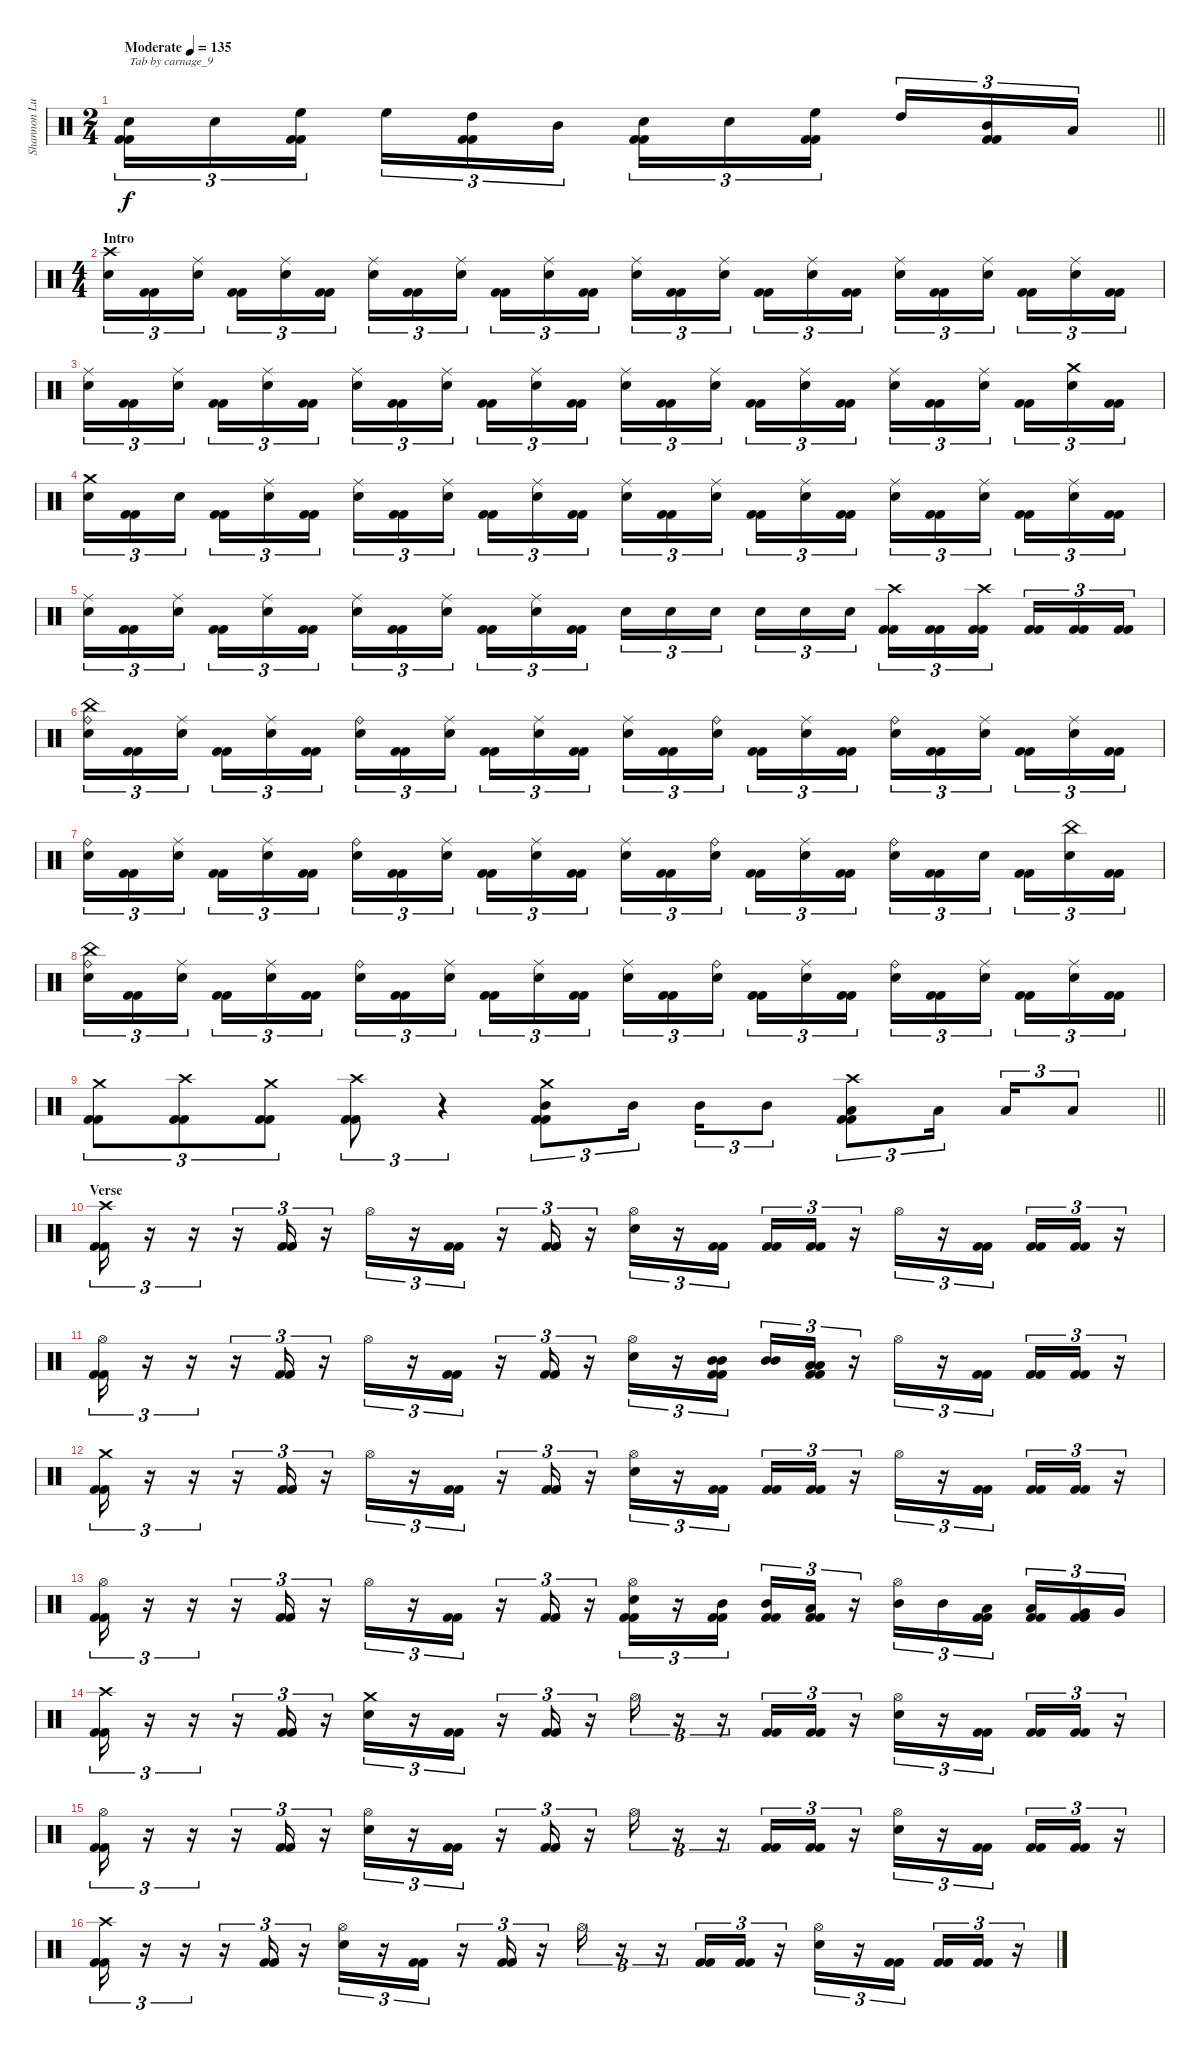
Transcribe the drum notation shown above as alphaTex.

\track ("Shannon Lucas" "Shannon Lu") {instrument percussion}
\staff {score}
\articulation defaults
\ts (2 4)
\tempo (135 "Moderate")
\clef neutral
\barLineRight lightlight
\ks c
("Electric Snare (hit)" "Kick (hit) 2" "Kick (hit) 2").16{tu (3 2) txt "Tab by carnage_9" dy f} "Electric Snare (hit)".16{tu (3 2)} ("High Floor Tom (hit)" "Kick (hit) 2" "Kick (hit) 2").16{tu (3 2) beam splitsecondary} "High Floor Tom (hit)".16{tu (3 2)} ("High Tom (hit)" "Kick (hit) 2" "Kick (hit) 2").16{tu (3 2)} "Mid Tom (hit)".16{tu (3 2)} ("Electric Snare (hit)" "Kick (hit) 2" "Kick (hit) 2").16{tu (3 2)} "Electric Snare (hit)".16{tu (3 2)} ("High Floor Tom (hit)" "Kick (hit) 2" "Kick (hit) 2").16{tu (3 2) beam splitsecondary} "High Tom (hit)".16{tu (3 2)} ("Mid Tom (hit)" "Kick (hit) 2" "Kick (hit) 2").16{tu (3 2)} "Low Tom (hit)".16{tu (3 2)} |
\ts (4 4)
\section ("" "Intro")
("Crash high (hit)" "Electric Snare (hit)").16{tu (3 2)} ("Kick (hit) 2" "Kick (hit) 2").16{tu (3 2)} ("Ride (middle)" "Electric Snare (hit)").16{tu (3 2) beam splitsecondary} ("Kick (hit) 2" "Kick (hit) 2").16{tu (3 2)} ("Ride (middle)" "Electric Snare (hit)").16{tu (3 2)} ("Kick (hit) 2" "Kick (hit) 2").16{tu (3 2)} ("Ride (middle)" "Electric Snare (hit)").16{tu (3 2)} ("Kick (hit) 2" "Kick (hit) 2").16{tu (3 2)} ("Ride (middle)" "Electric Snare (hit)").16{tu (3 2) beam splitsecondary} ("Kick (hit) 2" "Kick (hit) 2").16{tu (3 2)} ("Ride (middle)" "Electric Snare (hit)").16{tu (3 2)} ("Kick (hit) 2" "Kick (hit) 2").16{tu (3 2)} ("Ride (middle)" "Electric Snare (hit)").16{tu (3 2)} ("Kick (hit) 2" "Kick (hit) 2").16{tu (3 2)} ("Ride (middle)" "Electric Snare (hit)").16{tu (3 2) beam splitsecondary} ("Kick (hit) 2" "Kick (hit) 2").16{tu (3 2)} ("Ride (middle)" "Electric Snare (hit)").16{tu (3 2)} ("Kick (hit) 2" "Kick (hit) 2").16{tu (3 2)} ("Ride (middle)" "Electric Snare (hit)").16{tu (3 2)} ("Kick (hit) 2" "Kick (hit) 2").16{tu (3 2)} ("Ride (middle)" "Electric Snare (hit)").16{tu (3 2) beam splitsecondary} ("Kick (hit) 2" "Kick (hit) 2").16{tu (3 2)} ("Ride (middle)" "Electric Snare (hit)").16{tu (3 2)} ("Kick (hit) 2" "Kick (hit) 2").16{tu (3 2)} |
("Ride (middle)" "Electric Snare (hit)").16{tu (3 2)} ("Kick (hit) 2" "Kick (hit) 2").16{tu (3 2)} ("Ride (middle)" "Electric Snare (hit)").16{tu (3 2) beam splitsecondary} ("Kick (hit) 2" "Kick (hit) 2").16{tu (3 2)} ("Ride (middle)" "Electric Snare (hit)").16{tu (3 2)} ("Kick (hit) 2" "Kick (hit) 2").16{tu (3 2)} ("Ride (middle)" "Electric Snare (hit)").16{tu (3 2)} ("Kick (hit) 2" "Kick (hit) 2").16{tu (3 2)} ("Ride (middle)" "Electric Snare (hit)").16{tu (3 2) beam splitsecondary} ("Kick (hit) 2" "Kick (hit) 2").16{tu (3 2)} ("Ride (middle)" "Electric Snare (hit)").16{tu (3 2)} ("Kick (hit) 2" "Kick (hit) 2").16{tu (3 2)} ("Ride (middle)" "Electric Snare (hit)").16{tu (3 2)} ("Kick (hit) 2" "Kick (hit) 2").16{tu (3 2)} ("Ride (middle)" "Electric Snare (hit)").16{tu (3 2) beam splitsecondary} ("Kick (hit) 2" "Kick (hit) 2").16{tu (3 2)} ("Ride (middle)" "Electric Snare (hit)").16{tu (3 2)} ("Kick (hit) 2" "Kick (hit) 2").16{tu (3 2)} ("Ride (middle)" "Electric Snare (hit)").16{tu (3 2)} ("Kick (hit) 2" "Kick (hit) 2").16{tu (3 2)} ("Ride (middle)" "Electric Snare (hit)").16{tu (3 2) beam splitsecondary} ("Kick (hit) 2" "Kick (hit) 2").16{tu (3 2)} ("Crash medium (hit)" "Electric Snare (hit)").16{tu (3 2)} ("Kick (hit) 2" "Kick (hit) 2").16{tu (3 2)} |
("Crash medium (hit)" "Electric Snare (hit)").16{tu (3 2)} ("Kick (hit) 2" "Kick (hit) 2").16{tu (3 2)} "Electric Snare (hit)".16{tu (3 2) beam splitsecondary} ("Kick (hit) 2" "Kick (hit) 2").16{tu (3 2)} ("Ride (middle)" "Electric Snare (hit)").16{tu (3 2)} ("Kick (hit) 2" "Kick (hit) 2").16{tu (3 2)} ("Ride (middle)" "Electric Snare (hit)").16{tu (3 2)} ("Kick (hit) 2" "Kick (hit) 2").16{tu (3 2)} ("Ride (middle)" "Electric Snare (hit)").16{tu (3 2) beam splitsecondary} ("Kick (hit) 2" "Kick (hit) 2").16{tu (3 2)} ("Ride (middle)" "Electric Snare (hit)").16{tu (3 2)} ("Kick (hit) 2" "Kick (hit) 2").16{tu (3 2)} ("Ride (middle)" "Electric Snare (hit)").16{tu (3 2)} ("Kick (hit) 2" "Kick (hit) 2").16{tu (3 2)} ("Ride (middle)" "Electric Snare (hit)").16{tu (3 2) beam splitsecondary} ("Kick (hit) 2" "Kick (hit) 2").16{tu (3 2)} ("Ride (middle)" "Electric Snare (hit)").16{tu (3 2)} ("Kick (hit) 2" "Kick (hit) 2").16{tu (3 2)} ("Ride (middle)" "Electric Snare (hit)").16{tu (3 2)} ("Kick (hit) 2" "Kick (hit) 2").16{tu (3 2)} ("Ride (middle)" "Electric Snare (hit)").16{tu (3 2) beam splitsecondary} ("Kick (hit) 2" "Kick (hit) 2").16{tu (3 2)} ("Ride (middle)" "Electric Snare (hit)").16{tu (3 2)} ("Kick (hit) 2" "Kick (hit) 2").16{tu (3 2)} |
("Ride (middle)" "Electric Snare (hit)").16{tu (3 2)} ("Kick (hit) 2" "Kick (hit) 2").16{tu (3 2)} ("Ride (middle)" "Electric Snare (hit)").16{tu (3 2) beam splitsecondary} ("Kick (hit) 2" "Kick (hit) 2").16{tu (3 2)} ("Ride (middle)" "Electric Snare (hit)").16{tu (3 2)} ("Kick (hit) 2" "Kick (hit) 2").16{tu (3 2)} ("Ride (middle)" "Electric Snare (hit)").16{tu (3 2)} ("Kick (hit) 2" "Kick (hit) 2").16{tu (3 2)} ("Ride (middle)" "Electric Snare (hit)").16{tu (3 2) beam splitsecondary} ("Kick (hit) 2" "Kick (hit) 2").16{tu (3 2)} ("Ride (middle)" "Electric Snare (hit)").16{tu (3 2)} ("Kick (hit) 2" "Kick (hit) 2").16{tu (3 2)} "Electric Snare (hit)".16{tu (3 2)} "Electric Snare (hit)".16{tu (3 2)} "Electric Snare (hit)".16{tu (3 2) beam splitsecondary} "Electric Snare (hit)".16{tu (3 2)} "Electric Snare (hit)".16{tu (3 2)} "Electric Snare (hit)".16{tu (3 2)} ("Crash high (hit)" "Kick (hit) 2" "Kick (hit) 2").16{tu (3 2)} ("Kick (hit) 2" "Kick (hit) 2").16{tu (3 2)} ("Crash high (hit)" "Kick (hit) 2" "Kick (hit) 2").16{tu (3 2) beam splitsecondary} ("Kick (hit) 2" "Kick (hit) 2").16{tu (3 2)} ("Kick (hit) 2" "Kick (hit) 2").16{tu (3 2)} ("Kick (hit) 2" "Kick (hit) 2").16{tu (3 2)} |
("China (hit)" "Ride (bell)" "Electric Snare (hit)").16{tu (3 2)} ("Kick (hit) 2" "Kick (hit) 2").16{tu (3 2)} ("Ride (middle)" "Electric Snare (hit)").16{tu (3 2) beam splitsecondary} ("Kick (hit) 2" "Kick (hit) 2").16{tu (3 2)} ("Ride (middle)" "Electric Snare (hit)").16{tu (3 2)} ("Kick (hit) 2" "Kick (hit) 2").16{tu (3 2)} ("Ride (bell)" "Electric Snare (hit)").16{tu (3 2)} ("Kick (hit) 2" "Kick (hit) 2").16{tu (3 2)} ("Ride (middle)" "Electric Snare (hit)").16{tu (3 2) beam splitsecondary} ("Kick (hit) 2" "Kick (hit) 2").16{tu (3 2)} ("Ride (middle)" "Electric Snare (hit)").16{tu (3 2)} ("Kick (hit) 2" "Kick (hit) 2").16{tu (3 2)} ("Ride (middle)" "Electric Snare (hit)").16{tu (3 2)} ("Kick (hit) 2" "Kick (hit) 2").16{tu (3 2)} ("Ride (bell)" "Electric Snare (hit)").16{tu (3 2) beam splitsecondary} ("Kick (hit) 2" "Kick (hit) 2").16{tu (3 2)} ("Ride (middle)" "Electric Snare (hit)").16{tu (3 2)} ("Kick (hit) 2" "Kick (hit) 2").16{tu (3 2)} ("Ride (bell)" "Electric Snare (hit)").16{tu (3 2)} ("Kick (hit) 2" "Kick (hit) 2").16{tu (3 2)} ("Ride (middle)" "Electric Snare (hit)").16{tu (3 2) beam splitsecondary} ("Kick (hit) 2" "Kick (hit) 2").16{tu (3 2)} ("Ride (middle)" "Electric Snare (hit)").16{tu (3 2)} ("Kick (hit) 2" "Kick (hit) 2").16{tu (3 2)} |
("Ride (bell)" "Electric Snare (hit)").16{tu (3 2)} ("Kick (hit) 2" "Kick (hit) 2").16{tu (3 2)} ("Ride (middle)" "Electric Snare (hit)").16{tu (3 2) beam splitsecondary} ("Kick (hit) 2" "Kick (hit) 2").16{tu (3 2)} ("Ride (middle)" "Electric Snare (hit)").16{tu (3 2)} ("Kick (hit) 2" "Kick (hit) 2").16{tu (3 2)} ("Ride (bell)" "Electric Snare (hit)").16{tu (3 2)} ("Kick (hit) 2" "Kick (hit) 2").16{tu (3 2)} ("Ride (middle)" "Electric Snare (hit)").16{tu (3 2) beam splitsecondary} ("Kick (hit) 2" "Kick (hit) 2").16{tu (3 2)} ("Ride (middle)" "Electric Snare (hit)").16{tu (3 2)} ("Kick (hit) 2" "Kick (hit) 2").16{tu (3 2)} ("Ride (middle)" "Electric Snare (hit)").16{tu (3 2)} ("Kick (hit) 2" "Kick (hit) 2").16{tu (3 2)} ("Ride (bell)" "Electric Snare (hit)").16{tu (3 2) beam splitsecondary} ("Kick (hit) 2" "Kick (hit) 2").16{tu (3 2)} ("Ride (middle)" "Electric Snare (hit)").16{tu (3 2)} ("Kick (hit) 2" "Kick (hit) 2").16{tu (3 2)} ("Ride (bell)" "Electric Snare (hit)").16{tu (3 2)} ("Kick (hit) 2" "Kick (hit) 2").16{tu (3 2)} "Electric Snare (hit)".16{tu (3 2) beam splitsecondary} ("Kick (hit) 2" "Kick (hit) 2").16{tu (3 2)} ("China (hit)" "Electric Snare (hit)").16{tu (3 2)} ("Kick (hit) 2" "Kick (hit) 2").16{tu (3 2)} |
("China (hit)" "Ride (bell)" "Electric Snare (hit)").16{tu (3 2)} ("Kick (hit) 2" "Kick (hit) 2").16{tu (3 2)} ("Ride (middle)" "Electric Snare (hit)").16{tu (3 2) beam splitsecondary} ("Kick (hit) 2" "Kick (hit) 2").16{tu (3 2)} ("Ride (middle)" "Electric Snare (hit)").16{tu (3 2)} ("Kick (hit) 2" "Kick (hit) 2").16{tu (3 2)} ("Ride (bell)" "Electric Snare (hit)").16{tu (3 2)} ("Kick (hit) 2" "Kick (hit) 2").16{tu (3 2)} ("Ride (middle)" "Electric Snare (hit)").16{tu (3 2) beam splitsecondary} ("Kick (hit) 2" "Kick (hit) 2").16{tu (3 2)} ("Ride (middle)" "Electric Snare (hit)").16{tu (3 2)} ("Kick (hit) 2" "Kick (hit) 2").16{tu (3 2)} ("Ride (middle)" "Electric Snare (hit)").16{tu (3 2)} ("Kick (hit) 2" "Kick (hit) 2").16{tu (3 2)} ("Ride (bell)" "Electric Snare (hit)").16{tu (3 2) beam splitsecondary} ("Kick (hit) 2" "Kick (hit) 2").16{tu (3 2)} ("Ride (middle)" "Electric Snare (hit)").16{tu (3 2)} ("Kick (hit) 2" "Kick (hit) 2").16{tu (3 2)} ("Ride (bell)" "Electric Snare (hit)").16{tu (3 2)} ("Kick (hit) 2" "Kick (hit) 2").16{tu (3 2)} ("Ride (middle)" "Electric Snare (hit)").16{tu (3 2) beam splitsecondary} ("Kick (hit) 2" "Kick (hit) 2").16{tu (3 2)} ("Ride (middle)" "Electric Snare (hit)").16{tu (3 2)} ("Kick (hit) 2" "Kick (hit) 2").16{tu (3 2)} |
\barLineRight lightlight
("Crash medium (hit)" "Kick (hit) 2" "Kick (hit) 2").8{tu (3 2)} ("Crash high (hit)" "Kick (hit) 2" "Kick (hit) 2").8{tu (3 2)} ("Crash medium (hit)" "Kick (hit) 2" "Kick (hit) 2").8{tu (3 2)} ("Crash high (hit)" "Kick (hit) 2" "Kick (hit) 2").8{tu (3 2)} r.4{tu (3 2)} ("Crash medium (hit)" "Mid Tom (hit)" "Kick (hit) 2" "Kick (hit) 2").8{tu (3 2)} "Mid Tom (hit)".16{tu (3 2) beam splitsecondary} "Mid Tom (hit)".16{tu (3 2)} "Mid Tom (hit)".8{tu (3 2)} ("Crash high (hit)" "Low Tom (hit)" "Kick (hit) 2" "Kick (hit) 2").8{tu (3 2)} "Low Tom (hit)".16{tu (3 2) beam splitsecondary} "Low Tom (hit)".16{tu (3 2)} "Low Tom (hit)".8{tu (3 2)} |
\section ("" "Verse")
("Crash high (hit)" "Kick (hit) 2" "Kick (hit) 2").16{tu (3 2)} r.16{tu (3 2)} r.16{tu (3 2)} r.16{tu (3 2)} ("Kick (hit) 2" "Kick (hit) 2").16{tu (3 2)} r.16{tu (3 2)} "Hi-Hat (open)".16{tu (3 2)} r.16{tu (3 2)} ("Kick (hit) 2" "Kick (hit) 2").16{tu (3 2)} r.16{tu (3 2)} ("Kick (hit) 2" "Kick (hit) 2").16{tu (3 2)} r.16{tu (3 2)} ("Hi-Hat (open)" "Electric Snare (hit)").16{tu (3 2)} r.16{tu (3 2)} ("Kick (hit) 2" "Kick (hit) 2").16{tu (3 2) beam splitsecondary} ("Kick (hit) 2" "Kick (hit) 2").16{tu (3 2)} ("Kick (hit) 2" "Kick (hit) 2").16{tu (3 2)} r.16{tu (3 2)} "Hi-Hat (open)".16{tu (3 2)} r.16{tu (3 2)} ("Kick (hit) 2" "Kick (hit) 2").16{tu (3 2) beam splitsecondary} ("Kick (hit) 2" "Kick (hit) 2").16{tu (3 2)} ("Kick (hit) 2" "Kick (hit) 2").16{tu (3 2)} r.16{tu (3 2)} |
("Hi-Hat (open)" "Kick (hit) 2" "Kick (hit) 2").16{tu (3 2)} r.16{tu (3 2)} r.16{tu (3 2)} r.16{tu (3 2)} ("Kick (hit) 2" "Kick (hit) 2").16{tu (3 2)} r.16{tu (3 2)} "Hi-Hat (open)".16{tu (3 2)} r.16{tu (3 2)} ("Kick (hit) 2" "Kick (hit) 2").16{tu (3 2)} r.16{tu (3 2)} ("Kick (hit) 2" "Kick (hit) 2").16{tu (3 2)} r.16{tu (3 2)} ("Hi-Hat (open)" "Electric Snare (hit)").16{tu (3 2)} r.16{tu (3 2)} ("Mid Tom (hit)" "Mid Tom (hit)" "Kick (hit) 2" "Kick (hit) 2").16{tu (3 2) beam splitsecondary} ("Mid Tom (hit)" "Mid Tom (hit)").16{tu (3 2)} ("Low Tom (hit)" "Low Tom (hit)" "Kick (hit) 2" "Kick (hit) 2").16{tu (3 2)} r.16{tu (3 2)} "Hi-Hat (open)".16{tu (3 2)} r.16{tu (3 2)} ("Kick (hit) 2" "Kick (hit) 2").16{tu (3 2) beam splitsecondary} ("Kick (hit) 2" "Kick (hit) 2").16{tu (3 2)} ("Kick (hit) 2" "Kick (hit) 2").16{tu (3 2)} r.16{tu (3 2)} |
("Crash medium (hit)" "Kick (hit) 2" "Kick (hit) 2").16{tu (3 2)} r.16{tu (3 2)} r.16{tu (3 2)} r.16{tu (3 2)} ("Kick (hit) 2" "Kick (hit) 2").16{tu (3 2)} r.16{tu (3 2)} "Hi-Hat (open)".16{tu (3 2)} r.16{tu (3 2)} ("Kick (hit) 2" "Kick (hit) 2").16{tu (3 2)} r.16{tu (3 2)} ("Kick (hit) 2" "Kick (hit) 2").16{tu (3 2)} r.16{tu (3 2)} ("Hi-Hat (open)" "Electric Snare (hit)").16{tu (3 2)} r.16{tu (3 2)} ("Kick (hit) 2" "Kick (hit) 2").16{tu (3 2) beam splitsecondary} ("Kick (hit) 2" "Kick (hit) 2").16{tu (3 2)} ("Kick (hit) 2" "Kick (hit) 2").16{tu (3 2)} r.16{tu (3 2)} "Hi-Hat (open)".16{tu (3 2)} r.16{tu (3 2)} ("Kick (hit) 2" "Kick (hit) 2").16{tu (3 2) beam splitsecondary} ("Kick (hit) 2" "Kick (hit) 2").16{tu (3 2)} ("Kick (hit) 2" "Kick (hit) 2").16{tu (3 2)} r.16{tu (3 2)} |
("Hi-Hat (open)" "Kick (hit) 2" "Kick (hit) 2").16{tu (3 2)} r.16{tu (3 2)} r.16{tu (3 2)} r.16{tu (3 2)} ("Kick (hit) 2" "Kick (hit) 2").16{tu (3 2)} r.16{tu (3 2)} "Hi-Hat (open)".16{tu (3 2)} r.16{tu (3 2)} ("Kick (hit) 2" "Kick (hit) 2").16{tu (3 2)} r.16{tu (3 2)} ("Kick (hit) 2" "Kick (hit) 2").16{tu (3 2)} r.16{tu (3 2)} ("Hi-Hat (open)" "Electric Snare (hit)" "Kick (hit) 2" "Kick (hit) 2").16{tu (3 2)} r.16{tu (3 2)} ("Mid Tom (hit)" "Kick (hit) 2" "Kick (hit) 2").16{tu (3 2) beam splitsecondary} ("Mid Tom (hit)" "Kick (hit) 2" "Kick (hit) 2").16{tu (3 2)} ("Low Tom (hit)" "Kick (hit) 2" "Kick (hit) 2").16{tu (3 2)} r.16{tu (3 2)} ("Hi-Hat (open)" "Mid Tom (hit)").16{tu (3 2)} "Mid Tom (hit)".16{tu (3 2)} ("Low Tom (hit)" "Kick (hit) 2" "Kick (hit) 2").16{tu (3 2) beam splitsecondary} ("Low Tom (hit)" "Kick (hit) 2" "Kick (hit) 2").16{tu (3 2)} ("Very Low Tom (hit)" "Kick (hit) 2" "Kick (hit) 2").16{tu (3 2)} "Very Low Tom (hit)".16{tu (3 2)} |
("Crash high (hit)" "Kick (hit) 2" "Kick (hit) 2").16{tu (3 2)} r.16{tu (3 2)} r.16{tu (3 2)} r.16{tu (3 2)} ("Kick (hit) 2" "Kick (hit) 2").16{tu (3 2)} r.16{tu (3 2)} ("Crash medium (hit)" "Electric Snare (hit)").16{tu (3 2)} r.16{tu (3 2)} ("Kick (hit) 2" "Kick (hit) 2").16{tu (3 2)} r.16{tu (3 2)} ("Kick (hit) 2" "Kick (hit) 2").16{tu (3 2)} r.16{tu (3 2)} "Hi-Hat (open)".16{tu (3 2)} r.16{tu (3 2)} r.16{tu (3 2)} ("Kick (hit) 2" "Kick (hit) 2").16{tu (3 2)} ("Kick (hit) 2" "Kick (hit) 2").16{tu (3 2)} r.16{tu (3 2)} ("Hi-Hat (open)" "Electric Snare (hit)").16{tu (3 2)} r.16{tu (3 2)} ("Kick (hit) 2" "Kick (hit) 2").16{tu (3 2) beam splitsecondary} ("Kick (hit) 2" "Kick (hit) 2").16{tu (3 2)} ("Kick (hit) 2" "Kick (hit) 2").16{tu (3 2)} r.16{tu (3 2)} |
("Hi-Hat (open)" "Kick (hit) 2" "Kick (hit) 2").16{tu (3 2)} r.16{tu (3 2)} r.16{tu (3 2)} r.16{tu (3 2)} ("Kick (hit) 2" "Kick (hit) 2").16{tu (3 2)} r.16{tu (3 2)} ("Hi-Hat (open)" "Electric Snare (hit)").16{tu (3 2)} r.16{tu (3 2)} ("Kick (hit) 2" "Kick (hit) 2").16{tu (3 2)} r.16{tu (3 2)} ("Kick (hit) 2" "Kick (hit) 2").16{tu (3 2)} r.16{tu (3 2)} "Hi-Hat (open)".16{tu (3 2)} r.16{tu (3 2)} r.16{tu (3 2)} ("Kick (hit) 2" "Kick (hit) 2").16{tu (3 2)} ("Kick (hit) 2" "Kick (hit) 2").16{tu (3 2)} r.16{tu (3 2)} ("Hi-Hat (open)" "Electric Snare (hit)").16{tu (3 2)} r.16{tu (3 2)} ("Kick (hit) 2" "Kick (hit) 2").16{tu (3 2) beam splitsecondary} ("Kick (hit) 2" "Kick (hit) 2").16{tu (3 2)} ("Kick (hit) 2" "Kick (hit) 2").16{tu (3 2)} r.16{tu (3 2)} |
("Crash high (hit)" "Kick (hit) 2" "Kick (hit) 2").16{tu (3 2)} r.16{tu (3 2)} r.16{tu (3 2)} r.16{tu (3 2)} ("Kick (hit) 2" "Kick (hit) 2").16{tu (3 2)} r.16{tu (3 2)} ("Hi-Hat (open)" "Electric Snare (hit)").16{tu (3 2)} r.16{tu (3 2)} ("Kick (hit) 2" "Kick (hit) 2").16{tu (3 2)} r.16{tu (3 2)} ("Kick (hit) 2" "Kick (hit) 2").16{tu (3 2)} r.16{tu (3 2)} "Hi-Hat (open)".16{tu (3 2)} r.16{tu (3 2)} r.16{tu (3 2)} ("Kick (hit) 2" "Kick (hit) 2").16{tu (3 2)} ("Kick (hit) 2" "Kick (hit) 2").16{tu (3 2)} r.16{tu (3 2)} ("Hi-Hat (open)" "Electric Snare (hit)").16{tu (3 2)} r.16{tu (3 2)} ("Kick (hit) 2" "Kick (hit) 2").16{tu (3 2) beam splitsecondary} ("Kick (hit) 2" "Kick (hit) 2").16{tu (3 2)} ("Kick (hit) 2" "Kick (hit) 2").16{tu (3 2)} r.16{tu (3 2)}
